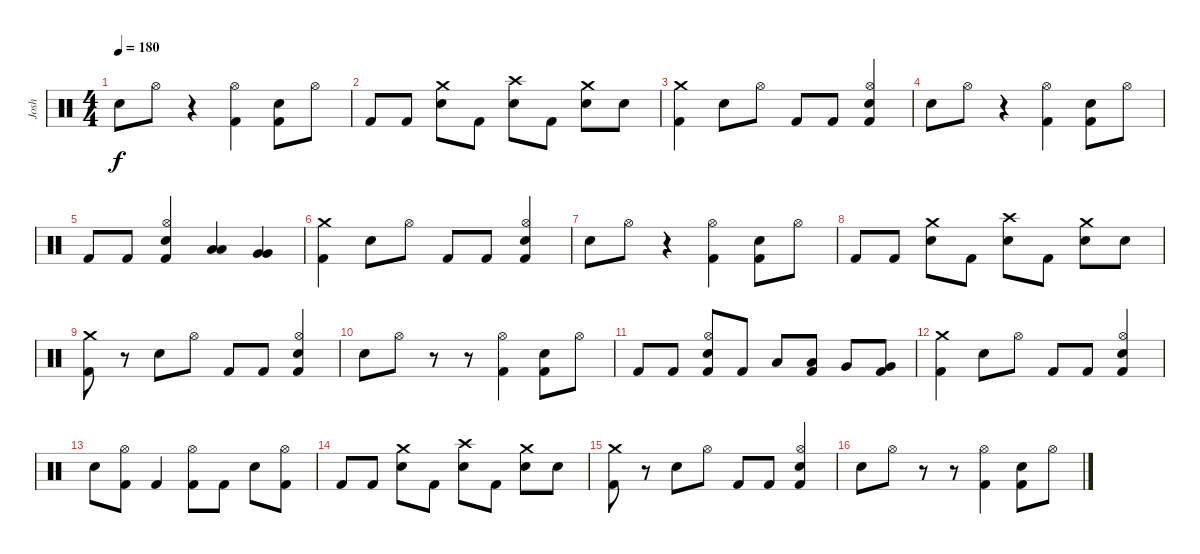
\track ("Josh" "Josh") {instrument percussion}
\staff {score}
\articulation defaults
\ts (4 4)
\tempo 180
\clef neutral
\ks c "Electric Snare (hit)".8{dy f} "Hi-Hat (open)".8
r.4 ("Hi-Hat (open)" "Kick (hit) 2").4 ("Electric Snare (hit)" "Kick (hit) 2").8 "Hi-Hat (open)".8 |
"Kick (hit) 2".8 "Kick (hit) 2".8 ("Crash medium (hit)" "Electric Snare (hit)").8 "Kick (hit) 2".8 ("Crash high (hit)" "Electric Snare (hit)").8 "Kick (hit) 2".8 ("Crash medium (hit)" "Electric Snare (hit)").8 "Electric Snare (hit)".8 |
("Crash medium (hit)" "Kick (hit) 2").4 "Electric Snare (hit)".8 "Hi-Hat (open)".8 "Kick (hit) 2".8 "Kick (hit) 2".8 ("Hi-Hat (open)" "Electric Snare (hit)" "Kick (hit) 2").4 |
"Electric Snare (hit)".8 "Hi-Hat (open)".8 r.4 ("Hi-Hat (open)" "Kick (hit) 2").4 ("Electric Snare (hit)" "Kick (hit) 2").8 "Hi-Hat (open)".8 |
"Kick (hit) 2".8 "Kick (hit) 2".8 ("Hi-Hat (open)" "Electric Snare (hit)" "Kick (hit) 2").4 ("Low Tom (hit)" "Low Tom (hit)").4 ("Very Low Tom (hit)" "Very Low Tom (hit)").4 |
("Crash medium (hit)" "Kick (hit) 2").4 "Electric Snare (hit)".8 "Hi-Hat (open)".8 "Kick (hit) 2".8 "Kick (hit) 2".8 ("Hi-Hat (open)" "Electric Snare (hit)" "Kick (hit) 2").4 |
"Electric Snare (hit)".8 "Hi-Hat (open)".8 r.4 ("Hi-Hat (open)" "Kick (hit) 2").4 ("Electric Snare (hit)" "Kick (hit) 2").8 "Hi-Hat (open)".8 |
"Kick (hit) 2".8 "Kick (hit) 2".8 ("Crash medium (hit)" "Electric Snare (hit)").8 "Kick (hit) 2".8 ("Crash high (hit)" "Electric Snare (hit)").8 "Kick (hit) 2".8 ("Crash medium (hit)" "Electric Snare (hit)").8 "Electric Snare (hit)".8 |
("Crash medium (hit)" "Kick (hit) 2").8 r.8 "Electric Snare (hit)".8 "Hi-Hat (open)".8 "Kick (hit) 2".8 "Kick (hit) 2".8 ("Hi-Hat (open)" "Electric Snare (hit)" "Kick (hit) 2").4 |
"Electric Snare (hit)".8 "Hi-Hat (open)".8 r.8 r.8 ("Hi-Hat (open)" "Kick (hit) 2").4 ("Electric Snare (hit)" "Kick (hit) 2").8 "Hi-Hat (open)".8 |
"Kick (hit) 2".8 "Kick (hit) 2".8 ("Hi-Hat (open)" "Electric Snare (hit)" "Kick (hit) 2").8 "Kick (hit) 2".8 "Low Tom (hit)".8 ("Low Tom (hit)" "Kick (hit) 2").8 "Very Low Tom (hit)".8 ("Very Low Tom (hit)" "Kick (hit) 2").8 |
("Crash medium (hit)" "Kick (hit) 2").4 "Electric Snare (hit)".8 "Hi-Hat (open)".8 "Kick (hit) 2".8 "Kick (hit) 2".8 ("Hi-Hat (open)" "Electric Snare (hit)" "Kick (hit) 2").4 |
"Electric Snare (hit)".8 ("Hi-Hat (open)" "Kick (hit) 2").8 "Kick (hit) 2".4 ("Hi-Hat (open)" "Kick (hit) 2").8 "Kick (hit) 2".8 "Electric Snare (hit)".8 ("Hi-Hat (open)" "Kick (hit) 2").8 |
"Kick (hit) 2".8 "Kick (hit) 2".8 ("Crash medium (hit)" "Electric Snare (hit)").8 "Kick (hit) 2".8 ("Crash high (hit)" "Electric Snare (hit)").8 "Kick (hit) 2".8 ("Crash medium (hit)" "Electric Snare (hit)").8 "Electric Snare (hit)".8 |
("Crash medium (hit)" "Kick (hit) 2").8 r.8 "Electric Snare (hit)".8 "Hi-Hat (open)".8 "Kick (hit) 2".8 "Kick (hit) 2".8 ("Hi-Hat (open)" "Electric Snare (hit)" "Kick (hit) 2").4 |
"Electric Snare (hit)".8 "Hi-Hat (open)".8 r.8 r.8 ("Hi-Hat (open)" "Kick (hit) 2").4 ("Electric Snare (hit)" "Kick (hit) 2").8 "Hi-Hat (open)".8
